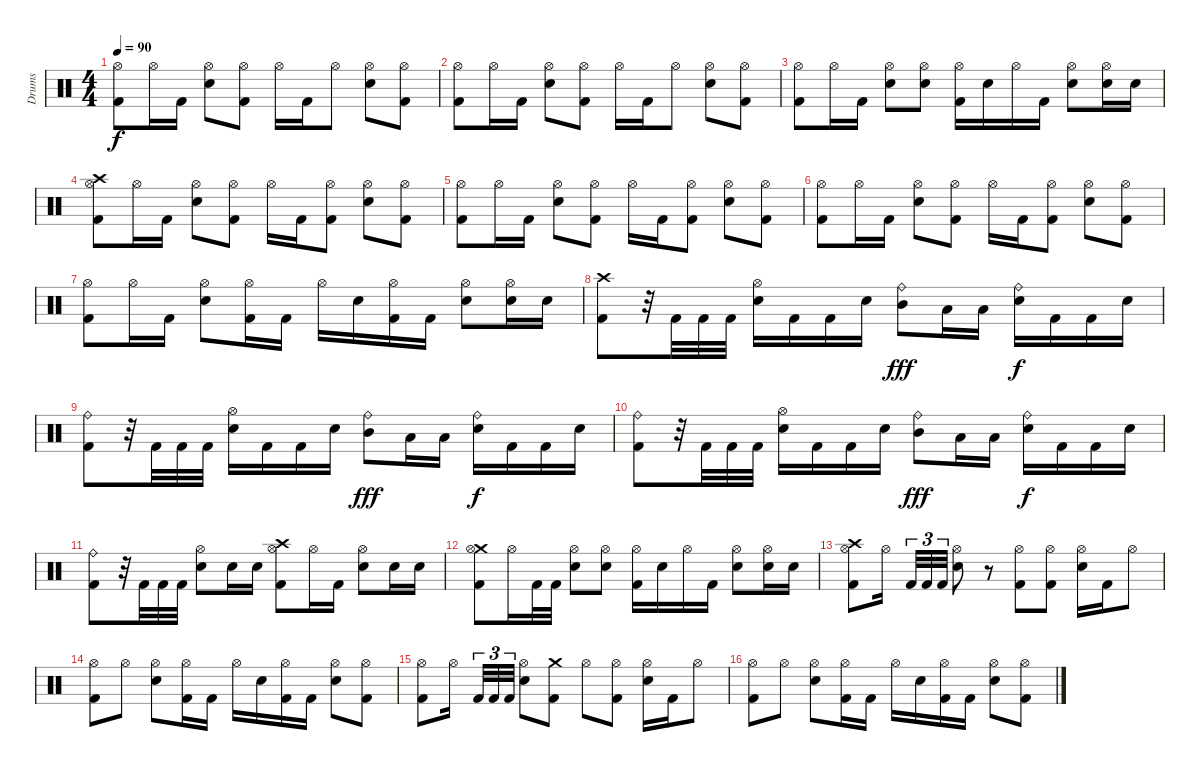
\track ("Drums" "Drums") {instrument percussion}
\staff {score}
\articulation defaults
\ts (4 4)
\tempo 90
\clef neutral
\ks c
("Hi-Hat (open)" "Kick (hit) 2").8{dy f} "Hi-Hat (open)".16 "Kick (hit) 2".16 ("Hi-Hat (open)" "Electric Snare (hit)").8 ("Hi-Hat (open)" "Kick (hit) 2").8 "Hi-Hat (open)".16 "Kick (hit) 2".16 "Hi-Hat (open)".8 ("Hi-Hat (open)" "Electric Snare (hit)").8 ("Hi-Hat (open)" "Kick (hit) 2").8 |
("Hi-Hat (open)" "Kick (hit) 2").8 "Hi-Hat (open)".16 "Kick (hit) 2".16 ("Hi-Hat (open)" "Electric Snare (hit)").8 ("Hi-Hat (open)" "Kick (hit) 2").8 "Hi-Hat (open)".16 "Kick (hit) 2".16 "Hi-Hat (open)".8 ("Hi-Hat (open)" "Electric Snare (hit)").8 ("Hi-Hat (open)" "Kick (hit) 2").8 |
("Hi-Hat (open)" "Kick (hit) 2").8 "Hi-Hat (open)".16 "Kick (hit) 2".16 ("Hi-Hat (open)" "Electric Snare (hit)").8 ("Hi-Hat (open)" "Electric Snare (hit)").8 ("Hi-Hat (open)" "Kick (hit) 2").16 "Electric Snare (hit)".16 "Hi-Hat (open)".16 "Kick (hit) 2".16 ("Hi-Hat (open)" "Electric Snare (hit)").8 ("Hi-Hat (open)" "Electric Snare (hit)").16 "Electric Snare (hit)".16 |
("Crash high (hit)" "Hi-Hat (open)" "Kick (hit) 2").8 "Hi-Hat (open)".16 "Kick (hit) 2".16 ("Hi-Hat (open)" "Electric Snare (hit)").8 ("Hi-Hat (open)" "Kick (hit) 2").8 "Hi-Hat (open)".16 "Kick (hit) 2".16 ("Hi-Hat (open)" "Kick (hit) 2").8 ("Hi-Hat (open)" "Electric Snare (hit)").8 ("Hi-Hat (open)" "Kick (hit) 2").8 |
("Hi-Hat (open)" "Kick (hit) 2").8 "Hi-Hat (open)".16 "Kick (hit) 2".16 ("Hi-Hat (open)" "Electric Snare (hit)").8 ("Hi-Hat (open)" "Kick (hit) 2").8 "Hi-Hat (open)".16 "Kick (hit) 2".16 ("Hi-Hat (open)" "Kick (hit) 2").8 ("Hi-Hat (open)" "Electric Snare (hit)").8 ("Hi-Hat (open)" "Kick (hit) 2").8 |
("Hi-Hat (open)" "Kick (hit) 2").8 "Hi-Hat (open)".16 "Kick (hit) 2".16 ("Hi-Hat (open)" "Electric Snare (hit)").8 ("Hi-Hat (open)" "Kick (hit) 2").8 "Hi-Hat (open)".16 "Kick (hit) 2".16 ("Hi-Hat (open)" "Kick (hit) 2").8 ("Hi-Hat (open)" "Electric Snare (hit)").8 ("Hi-Hat (open)" "Kick (hit) 2").8 |
("Hi-Hat (open)" "Kick (hit) 2").8 "Hi-Hat (open)".16 "Kick (hit) 2".16 ("Hi-Hat (open)" "Electric Snare (hit)").8 ("Hi-Hat (open)" "Kick (hit) 2").16 "Kick (hit) 2".16 "Hi-Hat (open)".16 "Electric Snare (hit)".16 ("Hi-Hat (open)" "Kick (hit) 2").16 "Kick (hit) 2".16 ("Hi-Hat (open)" "Electric Snare (hit)").8 ("Hi-Hat (open)" "Electric Snare (hit)").16 "Electric Snare (hit)".16 |
("Crash high (hit)" "Kick (hit) 2").8 r.32 "Kick (hit) 2".32 "Kick (hit) 2".32 "Kick (hit) 2".32 ("Hi-Hat (open)" "Electric Snare (hit)").16 "Kick (hit) 2".16 "Kick (hit) 2".16 "Electric Snare (hit)".16 ("Ride (bell)" "Mid Tom (hit)").8{dy fff} "Low Tom (hit)".16 "Low Tom (hit)".16 ("Ride (bell)" "Electric Snare (hit)").16{dy f} "Kick (hit) 2".16 "Kick (hit) 2".16 "Electric Snare (hit)".16 |
("Ride (bell)" "Kick (hit) 2").8 r.32 "Kick (hit) 2".32 "Kick (hit) 2".32 "Kick (hit) 2".32 ("Hi-Hat (open)" "Electric Snare (hit)").16 "Kick (hit) 2".16 "Kick (hit) 2".16 "Electric Snare (hit)".16 ("Ride (bell)" "Mid Tom (hit)").8{dy fff} "Low Tom (hit)".16 "Low Tom (hit)".16 ("Ride (bell)" "Electric Snare (hit)").16{dy f} "Kick (hit) 2".16 "Kick (hit) 2".16 "Electric Snare (hit)".16 |
("Ride (bell)" "Kick (hit) 2").8 r.32 "Kick (hit) 2".32 "Kick (hit) 2".32 "Kick (hit) 2".32 ("Hi-Hat (open)" "Electric Snare (hit)").16 "Kick (hit) 2".16 "Kick (hit) 2".16 "Electric Snare (hit)".16 ("Ride (bell)" "Mid Tom (hit)").8{dy fff} "Low Tom (hit)".16 "Low Tom (hit)".16 ("Ride (bell)" "Electric Snare (hit)").16{dy f} "Kick (hit) 2".16 "Kick (hit) 2".16 "Electric Snare (hit)".16 |
("Ride (bell)" "Kick (hit) 2").8 r.32 "Kick (hit) 2".32 "Kick (hit) 2".32 "Kick (hit) 2".32 ("Hi-Hat (open)" "Electric Snare (hit)").8 "Electric Snare (hit)".16 "Electric Snare (hit)".16 ("Crash high (hit)" "Hi-Hat (open)" "Kick (hit) 2").8 "Hi-Hat (open)".16 "Kick (hit) 2".16 ("Hi-Hat (open)" "Electric Snare (hit)").8 "Electric Snare (hit)".16 "Electric Snare (hit)".16 |
("Crash medium (hit)" "Hi-Hat (open)" "Kick (hit) 2").8 "Hi-Hat (open)".16 "Kick (hit) 2".32 "Kick (hit) 2".32 ("Hi-Hat (open)" "Electric Snare (hit)").8 ("Hi-Hat (open)" "Electric Snare (hit)").8 ("Hi-Hat (open)" "Kick (hit) 2").16 "Electric Snare (hit)".16 "Hi-Hat (open)".16 "Kick (hit) 2".16 ("Hi-Hat (open)" "Electric Snare (hit)").8 ("Hi-Hat (open)" "Electric Snare (hit)").16 "Electric Snare (hit)".16 |
("Crash high (hit)" "Hi-Hat (open)" "Kick (hit) 2").8 "Hi-Hat (open)".16 "Kick (hit) 2".32{tu (3 2)} "Kick (hit) 2".32{tu (3 2)} "Kick (hit) 2".32{tu (3 2)} ("Hi-Hat (open)" "Electric Snare (hit)").8 r.8 ("Hi-Hat (open)" "Kick (hit) 2").8 ("Hi-Hat (open)" "Kick (hit) 2").8 ("Hi-Hat (open)" "Electric Snare (hit)").16 "Kick (hit) 2".16 "Hi-Hat (open)".8 |
("Hi-Hat (open)" "Kick (hit) 2").8 "Hi-Hat (open)".8 ("Hi-Hat (open)" "Electric Snare (hit)").8 ("Hi-Hat (open)" "Kick (hit) 2").16 "Kick (hit) 2".16 "Hi-Hat (open)".16 "Electric Snare (hit)".16 ("Hi-Hat (open)" "Kick (hit) 2").16 "Kick (hit) 2".16 ("Hi-Hat (open)" "Electric Snare (hit)").8 ("Hi-Hat (open)" "Kick (hit) 2").8 |
("Hi-Hat (open)" "Kick (hit) 2").8 "Hi-Hat (open)".16 "Kick (hit) 2".32{tu (3 2)} "Kick (hit) 2".32{tu (3 2)} "Kick (hit) 2".32{tu (3 2)} ("Hi-Hat (open)" "Electric Snare (hit)").8 ("Crash medium (hit)" "Kick (hit) 2").8 "Hi-Hat (open)".8 ("Hi-Hat (open)" "Kick (hit) 2").8 ("Hi-Hat (open)" "Electric Snare (hit)").16 "Kick (hit) 2".16 "Hi-Hat (open)".8 |
("Hi-Hat (open)" "Kick (hit) 2").8 "Hi-Hat (open)".8 ("Hi-Hat (open)" "Electric Snare (hit)").8 ("Hi-Hat (open)" "Kick (hit) 2").16 "Kick (hit) 2".16 "Hi-Hat (open)".16 "Electric Snare (hit)".16 ("Hi-Hat (open)" "Kick (hit) 2").16 "Kick (hit) 2".16 ("Hi-Hat (open)" "Electric Snare (hit)").8 ("Hi-Hat (open)" "Kick (hit) 2").8
